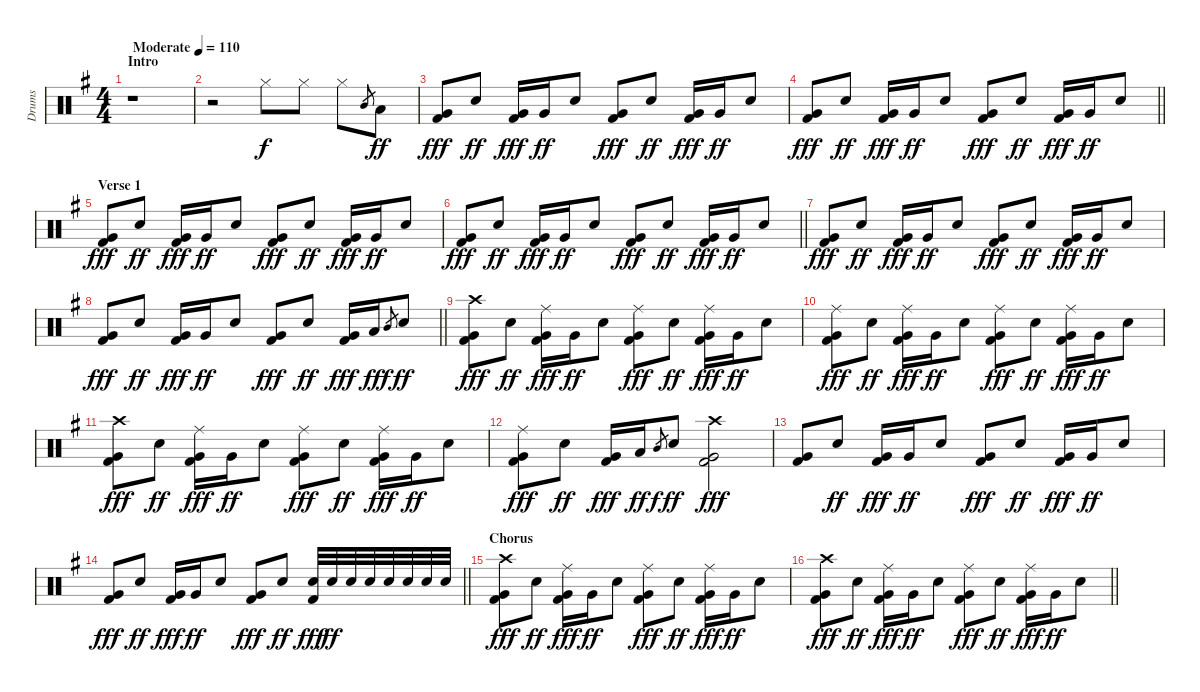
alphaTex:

\track ("Drums" "Drums") {instrument percussion}
\staff {score}
\articulation defaults
\ts (4 4)
\section ("" "Intro")
\tempo (110 "Moderate")
\clef neutral
\ks g
r.1{dy f} |
r.2 "Hi-Hat (closed)".8 "Hi-Hat (closed)".8 "Hi-Hat (closed)".8 "Mid Tom (hit)".8{gr} "Low Tom (hit)".8{dy ff} |
("Very Low Tom (hit)" "Kick (hit) 2").8{dy fff} "Snare (hit) 2".8{dy ff} ("Very Low Tom (hit)" "Kick (hit) 2").16{dy fff} "Very Low Tom (hit)".16{dy ff} "Snare (hit) 2".8 ("Very Low Tom (hit)" "Kick (hit) 2").8{dy fff} "Snare (hit) 2".8{dy ff} ("Very Low Tom (hit)" "Kick (hit) 2").16{dy fff} "Very Low Tom (hit)".16{dy ff} "Snare (hit) 2".8 |
\barLineRight lightlight
("Very Low Tom (hit)" "Kick (hit) 2").8{dy fff} "Snare (hit) 2".8{dy ff} ("Very Low Tom (hit)" "Kick (hit) 2").16{dy fff} "Very Low Tom (hit)".16{dy ff} "Snare (hit) 2".8 ("Very Low Tom (hit)" "Kick (hit) 2").8{dy fff} "Snare (hit) 2".8{dy ff} ("Very Low Tom (hit)" "Kick (hit) 2").16{dy fff} "Very Low Tom (hit)".16{dy ff} "Snare (hit) 2".8 |
\section ("" "Verse 1")
("Very Low Tom (hit)" "Kick (hit) 2").8{dy fff} "Snare (hit) 2".8{dy ff} ("Very Low Tom (hit)" "Kick (hit) 2").16{dy fff} "Very Low Tom (hit)".16{dy ff} "Snare (hit) 2".8 ("Very Low Tom (hit)" "Kick (hit) 2").8{dy fff} "Snare (hit) 2".8{dy ff} ("Very Low Tom (hit)" "Kick (hit) 2").16{dy fff} "Very Low Tom (hit)".16{dy ff} "Snare (hit) 2".8 |
\barLineRight lightlight
("Very Low Tom (hit)" "Kick (hit) 2").8{dy fff} "Snare (hit) 2".8{dy ff} ("Very Low Tom (hit)" "Kick (hit) 2").16{dy fff} "Very Low Tom (hit)".16{dy ff} "Snare (hit) 2".8 ("Very Low Tom (hit)" "Kick (hit) 2").8{dy fff} "Snare (hit) 2".8{dy ff} ("Very Low Tom (hit)" "Kick (hit) 2").16{dy fff} "Very Low Tom (hit)".16{dy ff} "Snare (hit) 2".8 |
("Very Low Tom (hit)" "Kick (hit) 2").8{dy fff} "Snare (hit) 2".8{dy ff} ("Very Low Tom (hit)" "Kick (hit) 2").16{dy fff} "Very Low Tom (hit)".16{dy ff} "Snare (hit) 2".8 ("Very Low Tom (hit)" "Kick (hit) 2").8{dy fff} "Snare (hit) 2".8{dy ff} ("Very Low Tom (hit)" "Kick (hit) 2").16{dy fff} "Very Low Tom (hit)".16{dy ff} "Snare (hit) 2".8 |
\barLineRight lightlight
("Very Low Tom (hit)" "Kick (hit) 2").8{dy fff} "Snare (hit) 2".8{dy ff} ("Very Low Tom (hit)" "Kick (hit) 2").16{dy fff} "Very Low Tom (hit)".16{dy ff} "Snare (hit) 2".8 ("Very Low Tom (hit)" "Kick (hit) 2").8{dy fff} "Snare (hit) 2".8{dy ff} ("Very Low Tom (hit)" "Kick (hit) 2").16{dy fff} "Low Tom (hit)".16{dy ff} "Mid Tom (hit)".8{gr dy f} "Snare (hit) 2".8{dy ff} |
("Crash high (hit)" "Very Low Tom (hit)" "Kick (hit) 2").8{dy fff} "Snare (hit) 2".8{dy ff} ("Ride (middle)" "Very Low Tom (hit)" "Kick (hit) 2").16{dy fff} "Very Low Tom (hit)".16{dy ff} "Snare (hit) 2".8 ("Ride (middle)" "Very Low Tom (hit)" "Kick (hit) 2").8{dy fff} "Snare (hit) 2".8{dy ff} ("Ride (middle)" "Very Low Tom (hit)" "Kick (hit) 2").16{dy fff} "Very Low Tom (hit)".16{dy ff} "Snare (hit) 2".8 |
("Ride (middle)" "Very Low Tom (hit)" "Kick (hit) 2").8{dy fff} "Snare (hit) 2".8{dy ff} ("Ride (middle)" "Very Low Tom (hit)" "Kick (hit) 2").16{dy fff} "Very Low Tom (hit)".16{dy ff} "Snare (hit) 2".8 ("Ride (middle)" "Very Low Tom (hit)" "Kick (hit) 2").8{dy fff} "Snare (hit) 2".8{dy ff} ("Ride (middle)" "Very Low Tom (hit)" "Kick (hit) 2").16{dy fff} "Very Low Tom (hit)".16{dy ff} "Snare (hit) 2".8 |
("Crash high (hit)" "Very Low Tom (hit)" "Kick (hit) 2").8{dy fff} "Snare (hit) 2".8{dy ff} ("Ride (middle)" "Very Low Tom (hit)" "Kick (hit) 2").16{dy fff} "Very Low Tom (hit)".16{dy ff} "Snare (hit) 2".8 ("Ride (middle)" "Very Low Tom (hit)" "Kick (hit) 2").8{dy fff} "Snare (hit) 2".8{dy ff} ("Ride (middle)" "Very Low Tom (hit)" "Kick (hit) 2").16{dy fff} "Very Low Tom (hit)".16{dy ff} "Snare (hit) 2".8 |
("Ride (middle)" "Very Low Tom (hit)" "Kick (hit) 2").8{dy fff} "Snare (hit) 2".8{dy ff} ("Very Low Tom (hit)" "Kick (hit) 2").16{dy fff} "Low Tom (hit)".16{dy ff} "Mid Tom (hit)".8{gr dy f} "Snare (hit) 2".8{dy ff} ("Crash high (hit)" "Very Low Tom (hit)" "Kick (hit) 2").2{dy fff} |
("Very Low Tom (hit)" "Kick (hit) 2").8 "Snare (hit) 2".8{dy ff} ("Very Low Tom (hit)" "Kick (hit) 2").16{dy fff} "Very Low Tom (hit)".16{dy ff} "Snare (hit) 2".8 ("Very Low Tom (hit)" "Kick (hit) 2").8{dy fff} "Snare (hit) 2".8{dy ff} ("Very Low Tom (hit)" "Kick (hit) 2").16{dy fff} "Very Low Tom (hit)".16{dy ff} "Snare (hit) 2".8 |
\barLineRight lightlight
("Very Low Tom (hit)" "Kick (hit) 2").8{dy fff} "Snare (hit) 2".8{dy ff} ("Very Low Tom (hit)" "Kick (hit) 2").16{dy fff} "Very Low Tom (hit)".16{dy ff} "Snare (hit) 2".8 ("Very Low Tom (hit)" "Kick (hit) 2").8{dy fff} "Snare (hit) 2".8{dy ff} ("Snare (hit) 2" "Kick (hit) 2").32{dy fff} "Snare (hit) 2".32{dy ff} "Snare (hit) 2".32 "Snare (hit) 2".32 "Snare (hit) 2".32 "Snare (hit) 2".32 "Snare (hit) 2".32 "Snare (hit) 2".32 |
\section ("" "Chorus")
("Crash high (hit)" "Very Low Tom (hit)" "Kick (hit) 2").8{dy fff} "Snare (hit) 2".8{dy ff} ("Ride (middle)" "Very Low Tom (hit)" "Kick (hit) 2").16{dy fff} "Very Low Tom (hit)".16{dy ff} "Snare (hit) 2".8 ("Ride (middle)" "Very Low Tom (hit)" "Kick (hit) 2").8{dy fff} "Snare (hit) 2".8{dy ff} ("Ride (middle)" "Very Low Tom (hit)" "Kick (hit) 2").16{dy fff} "Very Low Tom (hit)".16{dy ff} "Snare (hit) 2".8 |
\barLineRight lightlight
("Crash high (hit)" "Very Low Tom (hit)" "Kick (hit) 2").8{dy fff} "Snare (hit) 2".8{dy ff} ("Ride (middle)" "Very Low Tom (hit)" "Kick (hit) 2").16{dy fff} "Very Low Tom (hit)".16{dy ff} "Snare (hit) 2".8 ("Ride (middle)" "Very Low Tom (hit)" "Kick (hit) 2").8{dy fff} "Snare (hit) 2".8{dy ff} ("Ride (middle)" "Very Low Tom (hit)" "Kick (hit) 2").16{dy fff} "Very Low Tom (hit)".16{dy ff} "Snare (hit) 2".8
